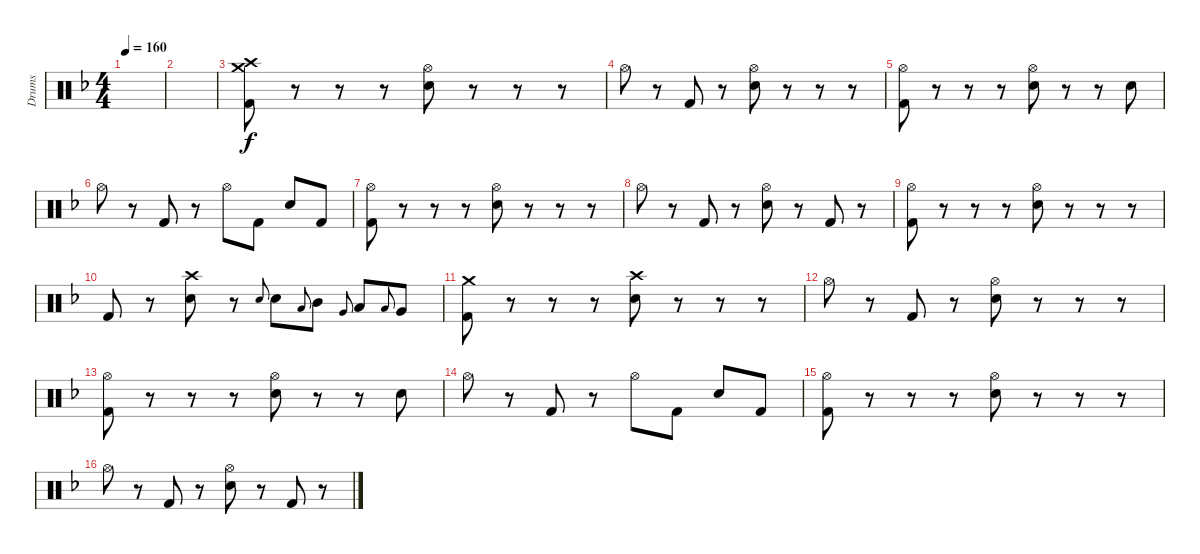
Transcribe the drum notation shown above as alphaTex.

\track ("Drums" "Drums") {instrument percussion}
\staff {score}
\articulation defaults
\ts (4 4)
\tempo 160
\clef neutral
\ks dminor
|
|
("Crash high (hit)" "Crash medium (hit)" "Kick (hit) 2").8 r.8 r.8 r.8 ("Hi-Hat (open)" "Electric Snare (hit)").8 r.8 r.8 r.8 |
"Hi-Hat (open)".8 r.8 "Kick (hit) 2".8 r.8 ("Hi-Hat (open)" "Electric Snare (hit)").8 r.8 r.8 r.8 |
("Hi-Hat (open)" "Kick (hit) 2").8 r.8 r.8 r.8 ("Hi-Hat (open)" "Electric Snare (hit)").8 r.8 r.8 "Electric Snare (hit)".8 |
"Hi-Hat (open)".8 r.8 "Kick (hit) 2".8 r.8 "Hi-Hat (open)".8 "Kick (hit) 2".8 "Electric Snare (hit)".8 "Kick (hit) 2".8 |
("Hi-Hat (open)" "Kick (hit) 2").8 r.8 r.8 r.8 ("Hi-Hat (open)" "Electric Snare (hit)").8 r.8 r.8 r.8 |
"Hi-Hat (open)".8 r.8 "Kick (hit) 2".8 r.8 ("Hi-Hat (open)" "Electric Snare (hit)").8 r.8 "Kick (hit) 2".8 r.8 |
("Hi-Hat (open)" "Kick (hit) 2").8 r.8 r.8 r.8 ("Hi-Hat (open)" "Electric Snare (hit)").8 r.8 r.8 r.8 |
"Kick (hit) 2".8 r.8 ("Crash high (hit)" "Electric Snare (hit)").8 r.8 "Electric Snare (hit)".8{gr onbeat} "Electric Snare (hit)".8 "Low Tom (hit)".8{gr onbeat} "Mid Tom (hit)".8 "Very Low Tom (hit)".8{gr onbeat} "Low Tom (hit)".8 "Low Floor Tom (hit)".8{gr onbeat} "Very Low Tom (hit)".8 |
("Crash medium (hit)" "Kick (hit) 2").8 r.8 r.8 r.8 ("Crash high (hit)" "Electric Snare (hit)").8 r.8 r.8 r.8 |
"Hi-Hat (open)".8 r.8 "Kick (hit) 2".8 r.8 ("Hi-Hat (open)" "Electric Snare (hit)").8 r.8 r.8 r.8 |
("Hi-Hat (open)" "Kick (hit) 2").8 r.8 r.8 r.8 ("Hi-Hat (open)" "Electric Snare (hit)").8 r.8 r.8 "Electric Snare (hit)".8 |
"Hi-Hat (open)".8 r.8 "Kick (hit) 2".8 r.8 "Hi-Hat (open)".8 "Kick (hit) 2".8 "Electric Snare (hit)".8 "Kick (hit) 2".8 |
("Hi-Hat (open)" "Kick (hit) 2").8 r.8 r.8 r.8 ("Hi-Hat (open)" "Electric Snare (hit)").8 r.8 r.8 r.8 |
"Hi-Hat (open)".8 r.8 "Kick (hit) 2".8 r.8 ("Hi-Hat (open)" "Electric Snare (hit)").8 r.8 "Kick (hit) 2".8 r.8
